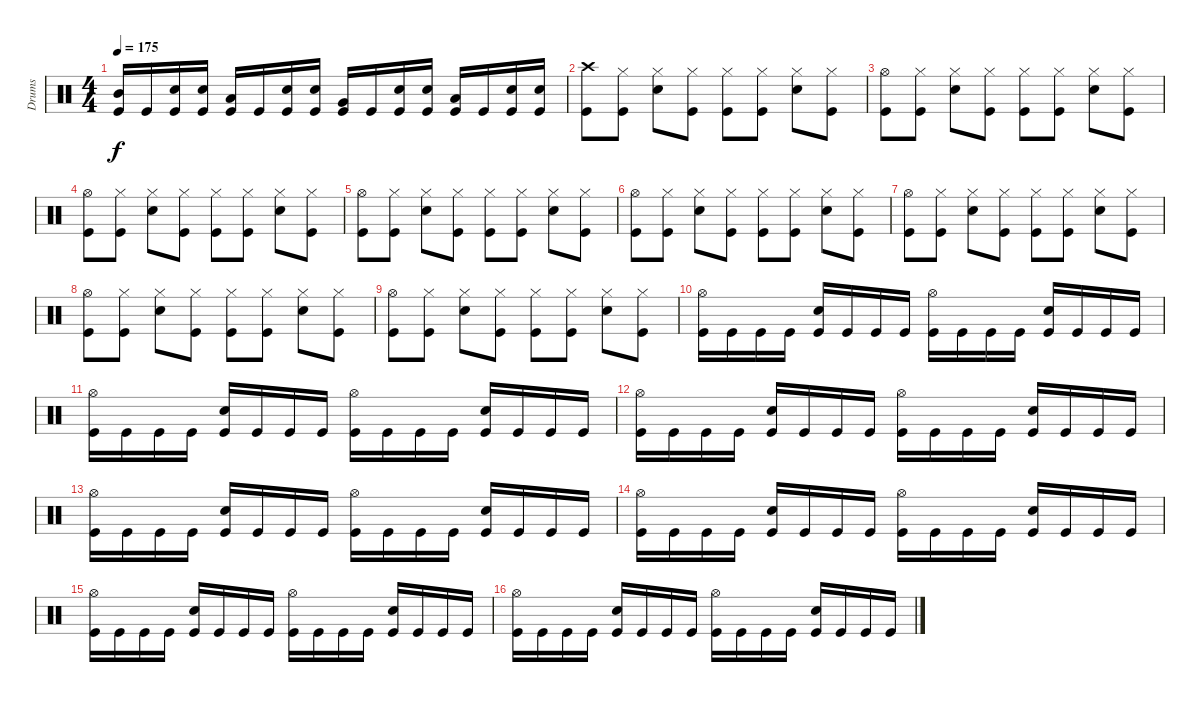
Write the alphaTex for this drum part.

\track ("Drums" "Drums") {instrument percussion}
\staff {score}
\articulation defaults
\ts (4 4)
\tempo 175
\clef neutral
\ks c
("Mid Tom (hit)" "Kick (hit)").16{dy f} "Kick (hit)".16 ("Snare (hit) 2" "Kick (hit)").16 ("Snare (hit) 2" "Kick (hit)").16 ("Low Tom (hit)" "Kick (hit)").16 "Kick (hit)".16 ("Snare (hit) 2" "Kick (hit)").16 ("Snare (hit) 2" "Kick (hit)").16 ("Very Low Tom (hit)" "Kick (hit)").16 "Kick (hit)".16 ("Snare (hit) 2" "Kick (hit)").16 ("Snare (hit) 2" "Kick (hit)").16 ("Low Floor Tom (hit)" "Kick (hit)").16 "Kick (hit)".16 ("Snare (hit) 2" "Kick (hit)").16 ("Snare (hit) 2" "Kick (hit)").16 |
("Crash high (hit)" "Kick (hit)").8 ("Hi-Hat (closed)" "Kick (hit)").8 ("Hi-Hat (closed)" "Snare (hit) 2").8 ("Hi-Hat (closed)" "Kick (hit)").8 ("Hi-Hat (closed)" "Kick (hit)").8 ("Hi-Hat (closed)" "Kick (hit)").8 ("Hi-Hat (closed)" "Snare (hit) 2").8 ("Hi-Hat (closed)" "Kick (hit)").8 |
("Hi-Hat (open)" "Kick (hit)").8 ("Hi-Hat (closed)" "Kick (hit)").8 ("Hi-Hat (closed)" "Snare (hit) 2").8 ("Hi-Hat (closed)" "Kick (hit)").8 ("Hi-Hat (closed)" "Kick (hit)").8 ("Hi-Hat (closed)" "Kick (hit)").8 ("Hi-Hat (closed)" "Snare (hit) 2").8 ("Hi-Hat (closed)" "Kick (hit)").8 |
("Hi-Hat (open)" "Kick (hit)").8 ("Hi-Hat (closed)" "Kick (hit)").8 ("Hi-Hat (closed)" "Snare (hit) 2").8 ("Hi-Hat (closed)" "Kick (hit)").8 ("Hi-Hat (closed)" "Kick (hit)").8 ("Hi-Hat (closed)" "Kick (hit)").8 ("Hi-Hat (closed)" "Snare (hit) 2").8 ("Hi-Hat (closed)" "Kick (hit)").8 |
("Hi-Hat (open)" "Kick (hit)").8 ("Hi-Hat (closed)" "Kick (hit)").8 ("Hi-Hat (closed)" "Snare (hit) 2").8 ("Hi-Hat (closed)" "Kick (hit)").8 ("Hi-Hat (closed)" "Kick (hit)").8 ("Hi-Hat (closed)" "Kick (hit)").8 ("Hi-Hat (closed)" "Snare (hit) 2").8 ("Hi-Hat (closed)" "Kick (hit)").8 |
("Hi-Hat (open)" "Kick (hit)").8 ("Hi-Hat (closed)" "Kick (hit)").8 ("Hi-Hat (closed)" "Snare (hit) 2").8 ("Hi-Hat (closed)" "Kick (hit)").8 ("Hi-Hat (closed)" "Kick (hit)").8 ("Hi-Hat (closed)" "Kick (hit)").8 ("Hi-Hat (closed)" "Snare (hit) 2").8 ("Hi-Hat (closed)" "Kick (hit)").8 |
("Hi-Hat (open)" "Kick (hit)").8 ("Hi-Hat (closed)" "Kick (hit)").8 ("Hi-Hat (closed)" "Snare (hit) 2").8 ("Hi-Hat (closed)" "Kick (hit)").8 ("Hi-Hat (closed)" "Kick (hit)").8 ("Hi-Hat (closed)" "Kick (hit)").8 ("Hi-Hat (closed)" "Snare (hit) 2").8 ("Hi-Hat (closed)" "Kick (hit)").8 |
("Hi-Hat (open)" "Kick (hit)").8 ("Hi-Hat (closed)" "Kick (hit)").8 ("Hi-Hat (closed)" "Snare (hit) 2").8 ("Hi-Hat (closed)" "Kick (hit)").8 ("Hi-Hat (closed)" "Kick (hit)").8 ("Hi-Hat (closed)" "Kick (hit)").8 ("Hi-Hat (closed)" "Snare (hit) 2").8 ("Hi-Hat (closed)" "Kick (hit)").8 |
("Hi-Hat (open)" "Kick (hit)").8 ("Hi-Hat (closed)" "Kick (hit)").8 ("Hi-Hat (closed)" "Snare (hit) 2").8 ("Hi-Hat (closed)" "Kick (hit)").8 ("Hi-Hat (closed)" "Kick (hit)").8 ("Hi-Hat (closed)" "Kick (hit)").8 ("Hi-Hat (closed)" "Snare (hit) 2").8 ("Hi-Hat (closed)" "Kick (hit)").8 |
("Hi-Hat (open)" "Kick (hit)").16 "Kick (hit)".16 "Kick (hit)".16 "Kick (hit)".16 ("Snare (hit) 2" "Kick (hit)").16 "Kick (hit)".16 "Kick (hit)".16 "Kick (hit)".16 ("Hi-Hat (open)" "Kick (hit)").16 "Kick (hit)".16 "Kick (hit)".16 "Kick (hit)".16 ("Snare (hit) 2" "Kick (hit)").16 "Kick (hit)".16 "Kick (hit)".16 "Kick (hit)".16 |
("Hi-Hat (open)" "Kick (hit)").16 "Kick (hit)".16 "Kick (hit)".16 "Kick (hit)".16 ("Snare (hit) 2" "Kick (hit)").16 "Kick (hit)".16 "Kick (hit)".16 "Kick (hit)".16 ("Hi-Hat (open)" "Kick (hit)").16 "Kick (hit)".16 "Kick (hit)".16 "Kick (hit)".16 ("Snare (hit) 2" "Kick (hit)").16 "Kick (hit)".16 "Kick (hit)".16 "Kick (hit)".16 |
("Hi-Hat (open)" "Kick (hit)").16 "Kick (hit)".16 "Kick (hit)".16 "Kick (hit)".16 ("Snare (hit) 2" "Kick (hit)").16 "Kick (hit)".16 "Kick (hit)".16 "Kick (hit)".16 ("Hi-Hat (open)" "Kick (hit)").16 "Kick (hit)".16 "Kick (hit)".16 "Kick (hit)".16 ("Snare (hit) 2" "Kick (hit)").16 "Kick (hit)".16 "Kick (hit)".16 "Kick (hit)".16 |
("Hi-Hat (open)" "Kick (hit)").16 "Kick (hit)".16 "Kick (hit)".16 "Kick (hit)".16 ("Snare (hit) 2" "Kick (hit)").16 "Kick (hit)".16 "Kick (hit)".16 "Kick (hit)".16 ("Hi-Hat (open)" "Kick (hit)").16 "Kick (hit)".16 "Kick (hit)".16 "Kick (hit)".16 ("Snare (hit) 2" "Kick (hit)").16 "Kick (hit)".16 "Kick (hit)".16 "Kick (hit)".16 |
("Hi-Hat (open)" "Kick (hit)").16 "Kick (hit)".16 "Kick (hit)".16 "Kick (hit)".16 ("Snare (hit) 2" "Kick (hit)").16 "Kick (hit)".16 "Kick (hit)".16 "Kick (hit)".16 ("Hi-Hat (open)" "Kick (hit)").16 "Kick (hit)".16 "Kick (hit)".16 "Kick (hit)".16 ("Snare (hit) 2" "Kick (hit)").16 "Kick (hit)".16 "Kick (hit)".16 "Kick (hit)".16 |
("Hi-Hat (open)" "Kick (hit)").16 "Kick (hit)".16 "Kick (hit)".16 "Kick (hit)".16 ("Snare (hit) 2" "Kick (hit)").16 "Kick (hit)".16 "Kick (hit)".16 "Kick (hit)".16 ("Hi-Hat (open)" "Kick (hit)").16 "Kick (hit)".16 "Kick (hit)".16 "Kick (hit)".16 ("Snare (hit) 2" "Kick (hit)").16 "Kick (hit)".16 "Kick (hit)".16 "Kick (hit)".16 |
("Hi-Hat (open)" "Kick (hit)").16 "Kick (hit)".16 "Kick (hit)".16 "Kick (hit)".16 ("Snare (hit) 2" "Kick (hit)").16 "Kick (hit)".16 "Kick (hit)".16 "Kick (hit)".16 ("Hi-Hat (open)" "Kick (hit)").16 "Kick (hit)".16 "Kick (hit)".16 "Kick (hit)".16 ("Snare (hit) 2" "Kick (hit)").16 "Kick (hit)".16 "Kick (hit)".16 "Kick (hit)".16
